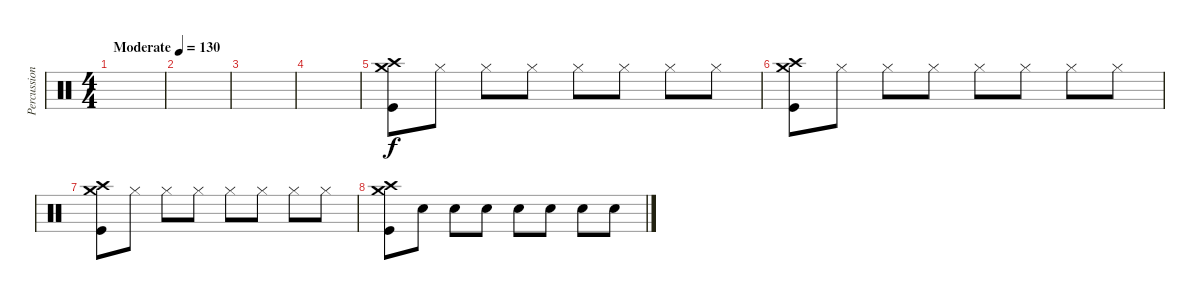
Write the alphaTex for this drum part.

\track ("Percussion" "Percussion") {instrument percussion}
\staff {score}
\articulation defaults
\ts (4 4)
\tempo (130 "Moderate")
\clef neutral
\ks c
|
|
|
|
("Crash medium (hit)" "Crash high (hit)" "Kick (hit)").8 "Hi-Hat (closed)".8 "Hi-Hat (closed)".8 "Hi-Hat (closed)".8 "Hi-Hat (closed)".8 "Hi-Hat (closed)".8 "Hi-Hat (closed)".8 "Hi-Hat (closed)".8 |
("Crash medium (hit)" "Crash high (hit)" "Kick (hit)").8 "Hi-Hat (closed)".8 "Hi-Hat (closed)".8 "Hi-Hat (closed)".8 "Hi-Hat (closed)".8 "Hi-Hat (closed)".8 "Hi-Hat (closed)".8 "Hi-Hat (closed)".8 |
("Crash medium (hit)" "Crash high (hit)" "Kick (hit)").8 "Hi-Hat (closed)".8 "Hi-Hat (closed)".8 "Hi-Hat (closed)".8 "Hi-Hat (closed)".8 "Hi-Hat (closed)".8 "Hi-Hat (closed)".8 "Hi-Hat (closed)".8 |
("Crash medium (hit)" "Crash high (hit)" "Kick (hit)").8 "Snare (hit) 2".8 "Snare (hit) 2".8 "Snare (hit) 2".8 "Snare (hit) 2".8 "Snare (hit) 2".8 "Snare (hit) 2".8 "Snare (hit) 2".8
